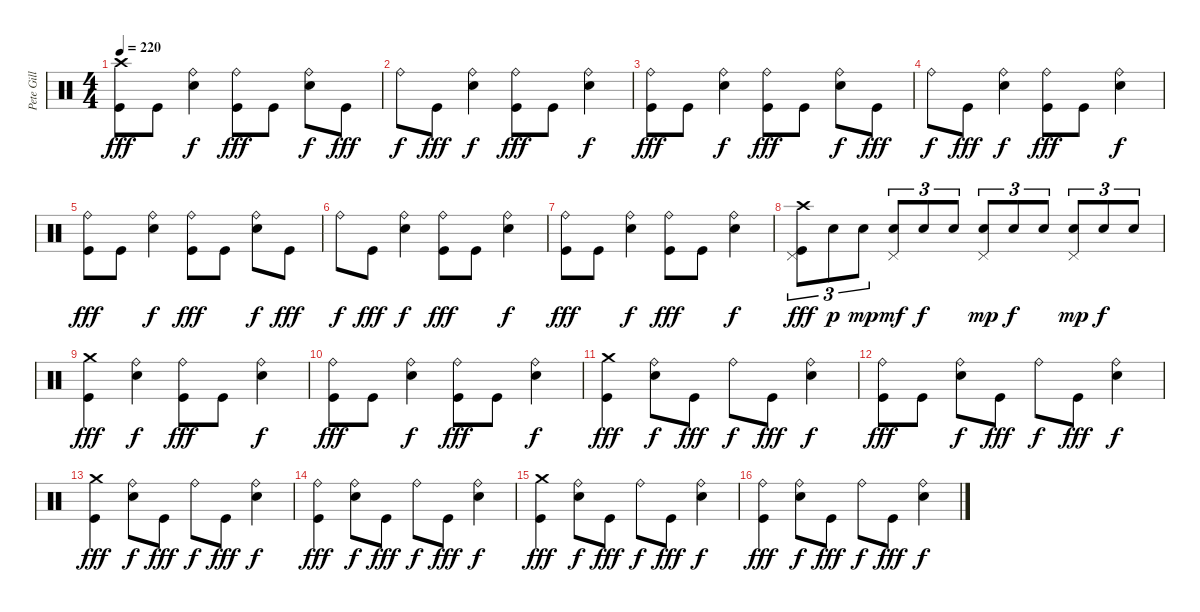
\track ("Pete Gill" "Pete Gill") {instrument percussion}
\staff {score}
\articulation defaults
\ts (4 4)
\tempo 220
\clef neutral
\ks c
("Crash high (hit)" "Kick (hit)").8{dy fff} "Kick (hit)".8 ("Ride (bell)" "Electric Snare (hit)").4{dy f} ("Ride (bell)" "Kick (hit)").8{dy fff} "Kick (hit)".8 ("Ride (bell)" "Electric Snare (hit)").8{dy f} "Kick (hit)".8{dy fff} |
"Ride (bell)".8{dy f} "Kick (hit)".8{dy fff} ("Ride (bell)" "Electric Snare (hit)").4{dy f} ("Ride (bell)" "Kick (hit)").8{dy fff} "Kick (hit)".8 ("Ride (bell)" "Electric Snare (hit)").4{dy f} |
("Ride (bell)" "Kick (hit)").8{dy fff} "Kick (hit)".8 ("Ride (bell)" "Electric Snare (hit)").4{dy f} ("Ride (bell)" "Kick (hit)").8{dy fff} "Kick (hit)".8 ("Ride (bell)" "Electric Snare (hit)").8{dy f} "Kick (hit)".8{dy fff} |
"Ride (bell)".8{dy f} "Kick (hit)".8{dy fff} ("Ride (bell)" "Electric Snare (hit)").4{dy f} ("Ride (bell)" "Kick (hit)").8{dy fff} "Kick (hit)".8 ("Ride (bell)" "Electric Snare (hit)").4{dy f} |
("Ride (bell)" "Kick (hit)").8{dy fff} "Kick (hit)".8 ("Ride (bell)" "Electric Snare (hit)").4{dy f} ("Ride (bell)" "Kick (hit)").8{dy fff} "Kick (hit)".8 ("Ride (bell)" "Electric Snare (hit)").8{dy f} "Kick (hit)".8{dy fff} |
"Ride (bell)".8{dy f} "Kick (hit)".8{dy fff} ("Ride (bell)" "Electric Snare (hit)").4{dy f} ("Ride (bell)" "Kick (hit)").8{dy fff} "Kick (hit)".8 ("Ride (bell)" "Electric Snare (hit)").4{dy f} |
("Ride (bell)" "Kick (hit)").8{dy fff} "Kick (hit)".8 ("Ride (bell)" "Electric Snare (hit)").4{dy f} ("Ride (bell)" "Kick (hit)").8{dy fff} "Kick (hit)".8 ("Ride (bell)" "Electric Snare (hit)").4{dy f} |
("Crash high (hit)" "Pedal Hi-Hat (hit)" "Kick (hit)").8{tu (3 2) dy fff} "Electric Snare (hit)".8{tu (3 2) dy p} "Electric Snare (hit)".8{tu (3 2) dy mp} ("Pedal Hi-Hat (hit)" "Electric Snare (hit)").8{tu (3 2) dy mf} "Electric Snare (hit)".8{tu (3 2) dy f} "Electric Snare (hit)".8{tu (3 2)} ("Pedal Hi-Hat (hit)" "Electric Snare (hit)").8{tu (3 2) dy mp} "Electric Snare (hit)".8{tu (3 2) dy f} "Electric Snare (hit)".8{tu (3 2)} ("Pedal Hi-Hat (hit)" "Electric Snare (hit)").8{tu (3 2) dy mp} "Electric Snare (hit)".8{tu (3 2) dy f} "Electric Snare (hit)".8{tu (3 2)} |
("Crash medium (hit)" "Kick (hit)").4{dy fff} ("Ride (bell)" "Electric Snare (hit)").4{dy f} ("Ride (bell)" "Kick (hit)").8{dy fff} "Kick (hit)".8 ("Ride (bell)" "Electric Snare (hit)").4{dy f} |
("Ride (bell)" "Kick (hit)").8{dy fff} "Kick (hit)".8 ("Ride (bell)" "Electric Snare (hit)").4{dy f} ("Ride (bell)" "Kick (hit)").8{dy fff} "Kick (hit)".8 ("Ride (bell)" "Electric Snare (hit)").4{dy f} |
("Crash medium (hit)" "Kick (hit)").4{dy fff} ("Ride (bell)" "Electric Snare (hit)").8{dy f} "Kick (hit)".8{dy fff} "Ride (bell)".8{dy f} "Kick (hit)".8{dy fff} ("Ride (bell)" "Electric Snare (hit)").4{dy f} |
("Ride (bell)" "Kick (hit)").8{dy fff} "Kick (hit)".8 ("Ride (bell)" "Electric Snare (hit)").8{dy f} "Kick (hit)".8{dy fff} "Ride (bell)".8{dy f} "Kick (hit)".8{dy fff} ("Ride (bell)" "Electric Snare (hit)").4{dy f} |
("Crash medium (hit)" "Kick (hit)").4{dy fff} ("Ride (bell)" "Electric Snare (hit)").8{dy f} "Kick (hit)".8{dy fff} "Ride (bell)".8{dy f} "Kick (hit)".8{dy fff} ("Ride (bell)" "Electric Snare (hit)").4{dy f} |
("Ride (bell)" "Kick (hit)").4{dy fff} ("Ride (bell)" "Electric Snare (hit)").8{dy f} "Kick (hit)".8{dy fff} "Ride (bell)".8{dy f} "Kick (hit)".8{dy fff} ("Ride (bell)" "Electric Snare (hit)").4{dy f} |
("Crash medium (hit)" "Kick (hit)").4{dy fff} ("Ride (bell)" "Electric Snare (hit)").8{dy f} "Kick (hit)".8{dy fff} "Ride (bell)".8{dy f} "Kick (hit)".8{dy fff} ("Ride (bell)" "Electric Snare (hit)").4{dy f} |
("Ride (bell)" "Kick (hit)").4{dy fff} ("Ride (bell)" "Electric Snare (hit)").8{dy f} "Kick (hit)".8{dy fff} "Ride (bell)".8{dy f} "Kick (hit)".8{dy fff} ("Ride (bell)" "Electric Snare (hit)").4{dy f}
